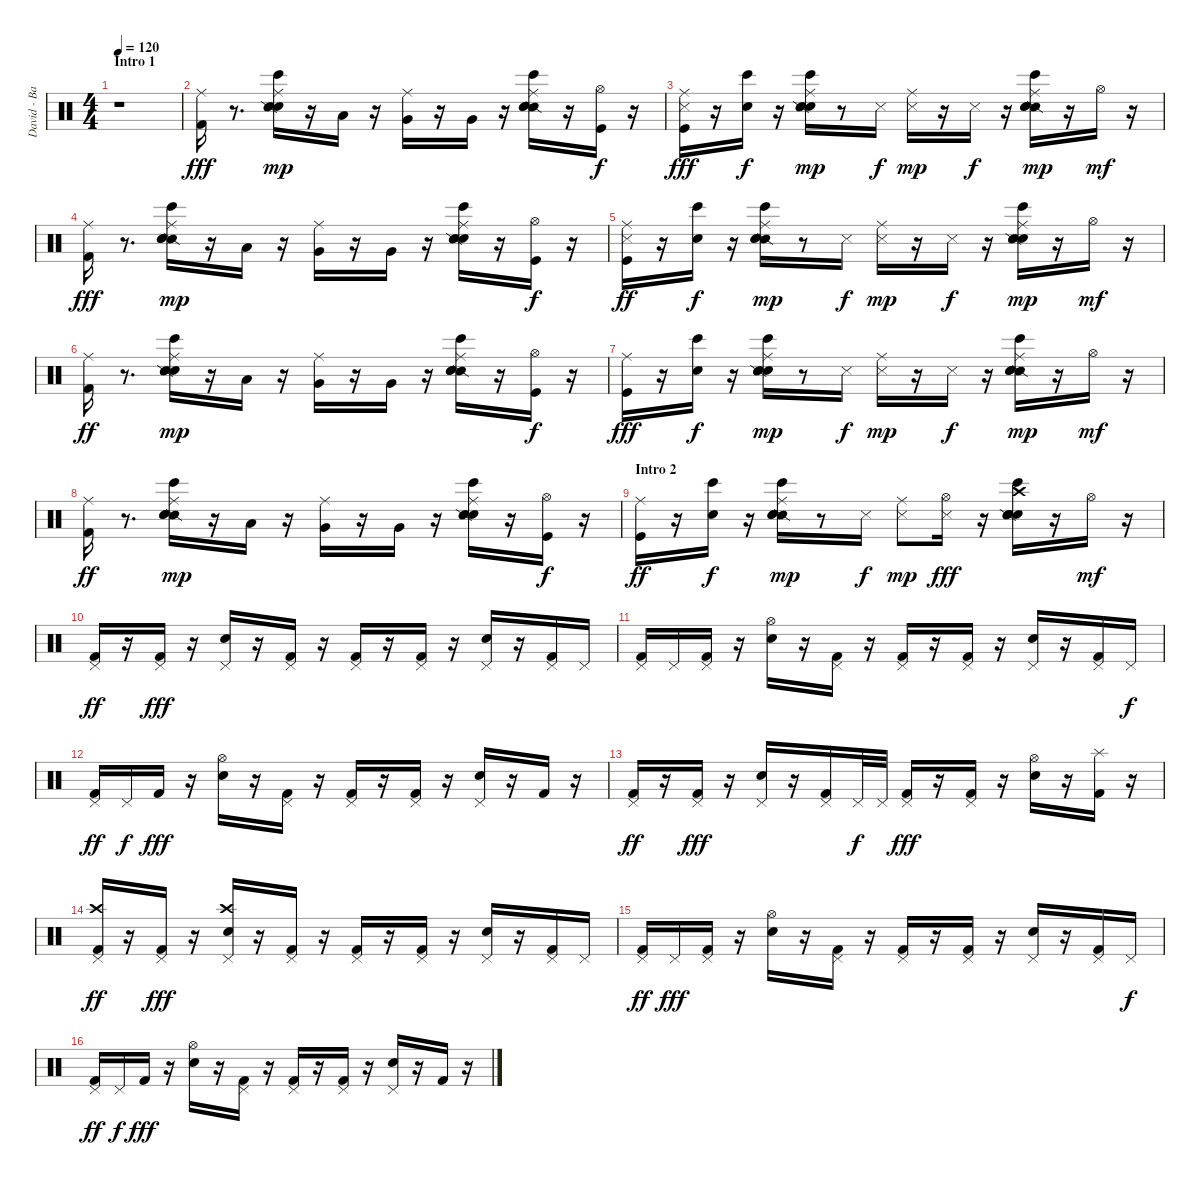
\track ("David - Batterie" "David - Ba") {instrument percussion}
\staff {score}
\articulation defaults
\ts (4 4)
\section ("" "Intro 1")
\tempo 120
\clef neutral
\ks c
r.1{dy fff} |
("Ride (middle)" "Kick (hit) 2").16 r.8{d} ("Ride (middle)" "Snare (hit)" "Snare (hit)" "Bongo High (hit)" "Snare (side stick) 2").16{dy mp} r.16 "Low Tom (hit)".16 r.16 ("Ride (middle)" "Very Low Tom (hit)").16 r.16 "Very Low Tom (hit)".16 r.16 ("Ride (middle)" "Snare (side stick) 2" "Bongo High (hit)" "Snare (hit)" "Snare (hit)").16 r.16 ("Hi-Hat (open)" "Kick (hit)").16{dy f} r.16 |
("Ride (middle)" "Kick (hit)" "Metronome (hit)").16{dy fff} r.16 ("Bongo High (hit)" "Snare (hit)").16{dy f} r.16 ("Ride (middle)" "Snare (hit)" "Snare (hit)" "Bongo High (hit)" "Snare (side stick) 2").16{dy mp} r.8 "Metronome (hit)".16{dy f} ("Ride (middle)" "Metronome (hit)").16{dy mp} r.16 "Metronome (hit)".16{dy f} r.16 ("Ride (middle)" "Snare (side stick) 2" "Bongo High (hit)" "Snare (hit)" "Snare (hit)").16{dy mp} r.16 "Hi-Hat (open)".16{dy mf} r.16 |
("Kick (hit) 2" "Ride (middle)").16{dy fff} r.8{d} ("Snare (side stick) 2" "Bongo High (hit)" "Snare (hit)" "Snare (hit)" "Ride (middle)").16{dy mp} r.16 "Low Tom (hit)".16 r.16 ("Very Low Tom (hit)" "Ride (middle)").16 r.16 "Very Low Tom (hit)".16 r.16 ("Snare (hit)" "Snare (hit)" "Bongo High (hit)" "Snare (side stick) 2" "Ride (middle)").16 r.16 ("Hi-Hat (open)" "Kick (hit)").16{dy f} r.16 |
("Metronome (hit)" "Kick (hit)" "Ride (middle)").16{dy ff} r.16 ("Snare (hit)" "Bongo High (hit)").16{dy f} r.16 ("Snare (side stick) 2" "Bongo High (hit)" "Snare (hit)" "Snare (hit)" "Ride (middle)").16{dy mp} r.8 "Metronome (hit)".16{dy f} ("Metronome (hit)" "Ride (middle)").16{dy mp} r.16 "Metronome (hit)".16{dy f} r.16 ("Snare (hit)" "Snare (hit)" "Bongo High (hit)" "Snare (side stick) 2" "Ride (middle)").16{dy mp} r.16 "Hi-Hat (open)".16{dy mf} r.16 |
("Ride (middle)" "Kick (hit) 2").16{dy ff} r.8{d} ("Ride (middle)" "Snare (hit)" "Snare (hit)" "Bongo High (hit)" "Snare (side stick) 2").16{dy mp} r.16 "Low Tom (hit)".16 r.16 ("Ride (middle)" "Very Low Tom (hit)").16 r.16 "Very Low Tom (hit)".16 r.16 ("Ride (middle)" "Snare (side stick) 2" "Bongo High (hit)" "Snare (hit)" "Snare (hit)").16 r.16 ("Hi-Hat (open)" "Kick (hit)").16{dy f} r.16 |
("Ride (middle)" "Kick (hit)").16{dy fff} r.16 ("Bongo High (hit)" "Snare (hit)").16{dy f} r.16 ("Ride (middle)" "Snare (hit)" "Snare (hit)" "Bongo High (hit)" "Snare (side stick) 2").16{dy mp} r.8 "Metronome (hit)".16{dy f} ("Ride (middle)" "Metronome (hit)").16{dy mp} r.16 "Metronome (hit)".16{dy f} r.16 ("Ride (middle)" "Snare (side stick) 2" "Bongo High (hit)" "Snare (hit)" "Snare (hit)").16{dy mp} r.16 "Hi-Hat (open)".16{dy mf} r.16 |
("Kick (hit) 2" "Ride (middle)").16{dy ff} r.8{d} ("Snare (side stick) 2" "Bongo High (hit)" "Snare (hit)" "Snare (hit)" "Ride (middle)").16{dy mp} r.16 "Low Tom (hit)".16 r.16 ("Very Low Tom (hit)" "Ride (middle)").16 r.16 "Very Low Tom (hit)".16 r.16 ("Snare (hit)" "Snare (hit)" "Bongo High (hit)" "Snare (side stick) 2" "Ride (middle)").16 r.16 ("Hi-Hat (open)" "Kick (hit)").16{dy f} r.16 |
\section ("" "Intro 2")
("Kick (hit)" "Ride (middle)").16{dy ff} r.16 ("Snare (hit)" "Bongo High (hit)").16{dy f} r.16 ("Snare (side stick) 2" "Bongo High (hit)" "Snare (hit)" "Snare (hit)" "Ride (middle)").16{dy mp} r.8 "Metronome (hit)".16{dy f} ("Metronome (hit)" "Ride (middle)").8{dy mp} ("Hi-Hat (open)" "Metronome (hit)").16{dy fff} r.16 ("Electric Snare (hit)" "Crash high (hit)" "Snare (hit)" "Snare (hit)" "Bongo High (hit)" "Snare (side stick) 2").16 r.16 "Hi-Hat (open)".16{dy mf} r.16 |
("Pedal Hi-Hat (hit)" "Kick (hit) 2").16{dy ff} r.16 ("Pedal Hi-Hat (hit)" "Kick (hit) 2").16{dy fff} r.16 ("Pedal Hi-Hat (hit)" "Electric Snare (hit)").16 r.16 ("Pedal Hi-Hat (hit)" "Kick (hit) 2").16 r.16 ("Pedal Hi-Hat (hit)" "Kick (hit) 2").16 r.16 ("Pedal Hi-Hat (hit)" "Kick (hit) 2").16 r.16 ("Pedal Hi-Hat (hit)" "Electric Snare (hit)").16 r.16 ("Pedal Hi-Hat (hit)" "Kick (hit) 2").16 "Pedal Hi-Hat (hit)".16 |
("Kick (hit) 2" "Pedal Hi-Hat (hit)").16 "Pedal Hi-Hat (hit)".16 ("Kick (hit) 2" "Pedal Hi-Hat (hit)").16 r.16 ("Hi-Hat (open)" "Electric Snare (hit)").16 r.16 ("Pedal Hi-Hat (hit)" "Kick (hit) 2").16 r.16 ("Pedal Hi-Hat (hit)" "Kick (hit) 2").16 r.16 ("Pedal Hi-Hat (hit)" "Kick (hit) 2").16 r.16 ("Pedal Hi-Hat (hit)" "Electric Snare (hit)").16 r.16 ("Pedal Hi-Hat (hit)" "Kick (hit) 2").16 "Pedal Hi-Hat (hit)".16{dy f} |
("Kick (hit) 2" "Pedal Hi-Hat (hit)").16{dy ff} "Pedal Hi-Hat (hit)".16{dy f} "Kick (hit) 2".16{dy fff} r.16 ("Hi-Hat (open)" "Electric Snare (hit)").16 r.16 ("Pedal Hi-Hat (hit)" "Kick (hit) 2").16 r.16 ("Pedal Hi-Hat (hit)" "Kick (hit) 2").16 r.16 ("Pedal Hi-Hat (hit)" "Kick (hit) 2").16 r.16 ("Pedal Hi-Hat (hit)" "Electric Snare (hit)").16 r.16 "Kick (hit) 2".16 r.16 |
("Pedal Hi-Hat (hit)" "Kick (hit) 2").16{dy ff} r.16 ("Pedal Hi-Hat (hit)" "Kick (hit) 2").16{dy fff} r.16 ("Pedal Hi-Hat (hit)" "Electric Snare (hit)").16 r.16 ("Pedal Hi-Hat (hit)" "Kick (hit) 2").16 "Pedal Hi-Hat (hit)".32{dy f} "Pedal Hi-Hat (hit)".32 ("Pedal Hi-Hat (hit)" "Kick (hit) 2").16{dy fff} r.16 ("Pedal Hi-Hat (hit)" "Kick (hit) 2").16 r.16 ("Hi-Hat (open)" "Electric Snare (hit)").16 r.16 ("Splash (hit)" "Kick (hit) 2").16 r.16 |
("Kick (hit) 2" "Pedal Hi-Hat (hit)" "Crash high (hit)").16{dy ff} r.16 ("Kick (hit) 2" "Pedal Hi-Hat (hit)").16{dy fff} r.16 ("Electric Snare (hit)" "Pedal Hi-Hat (hit)" "Crash high (hit)").16 r.16 ("Kick (hit) 2" "Pedal Hi-Hat (hit)").16 r.16 ("Kick (hit) 2" "Pedal Hi-Hat (hit)").16 r.16 ("Kick (hit) 2" "Pedal Hi-Hat (hit)").16 r.16 ("Electric Snare (hit)" "Pedal Hi-Hat (hit)").16 r.16 ("Kick (hit) 2" "Pedal Hi-Hat (hit)").16 "Pedal Hi-Hat (hit)".16 |
("Pedal Hi-Hat (hit)" "Kick (hit) 2").16{dy ff} "Pedal Hi-Hat (hit)".16{dy fff} ("Pedal Hi-Hat (hit)" "Kick (hit) 2").16 r.16 ("Electric Snare (hit)" "Hi-Hat (open)").16 r.16 ("Kick (hit) 2" "Pedal Hi-Hat (hit)").16 r.16 ("Kick (hit) 2" "Pedal Hi-Hat (hit)").16 r.16 ("Kick (hit) 2" "Pedal Hi-Hat (hit)").16 r.16 ("Electric Snare (hit)" "Pedal Hi-Hat (hit)").16 r.16 ("Kick (hit) 2" "Pedal Hi-Hat (hit)").16 "Pedal Hi-Hat (hit)".16{dy f} |
("Pedal Hi-Hat (hit)" "Kick (hit) 2").16{dy ff} "Pedal Hi-Hat (hit)".16{dy f} "Kick (hit) 2".16{dy fff} r.16 ("Electric Snare (hit)" "Hi-Hat (open)").16 r.16 ("Kick (hit) 2" "Pedal Hi-Hat (hit)").16 r.16 ("Kick (hit) 2" "Pedal Hi-Hat (hit)").16 r.16 ("Kick (hit) 2" "Pedal Hi-Hat (hit)").16 r.16 ("Electric Snare (hit)" "Pedal Hi-Hat (hit)").16 r.16 "Kick (hit) 2".16 r.16
